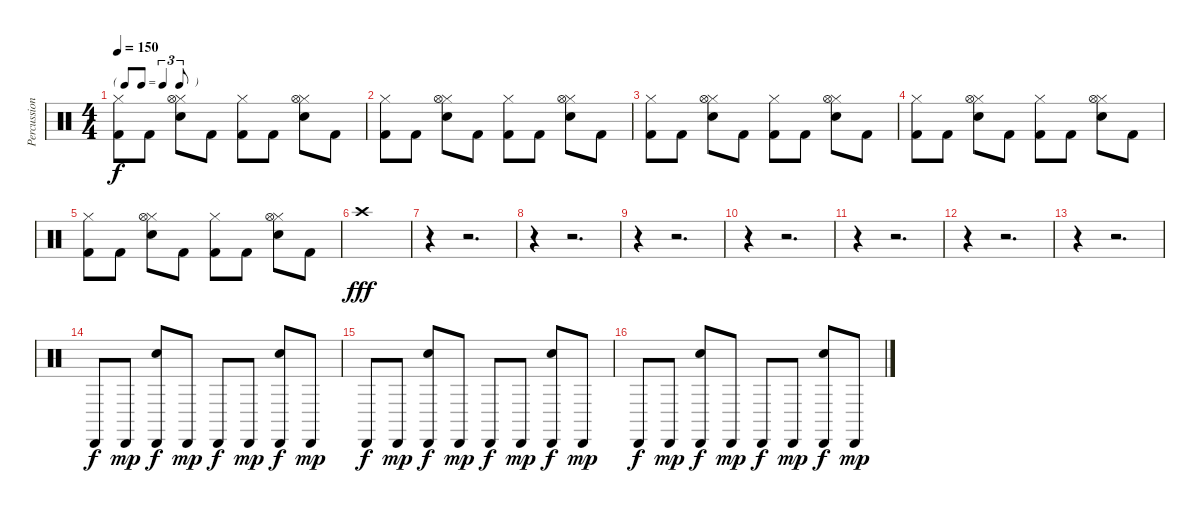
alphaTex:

\track ("Percussion" "Percussion") {instrument percussion}
\staff {score}
\articulation defaults
\ts (4 4)
\tf triplet8th
\tempo 150
\clef neutral
\ks c
("Hi-Hat (closed)" "Kick (hit) 2").8{dy f} "Kick (hit) 2".8 ("Hi-Hat (closed)" "Snare (hit) 2" "Hi-Hat (open)").8 "Kick (hit) 2".8 ("Hi-Hat (closed)" "Kick (hit) 2").8 "Kick (hit) 2".8 ("Hi-Hat (closed)" "Snare (hit) 2" "Hi-Hat (open)").8 "Kick (hit) 2".8 |
("Hi-Hat (closed)" "Kick (hit) 2").8 "Kick (hit) 2".8 ("Hi-Hat (closed)" "Snare (hit) 2" "Hi-Hat (open)").8 "Kick (hit) 2".8 ("Hi-Hat (closed)" "Kick (hit) 2").8 "Kick (hit) 2".8 ("Hi-Hat (closed)" "Snare (hit) 2" "Hi-Hat (open)").8 "Kick (hit) 2".8 |
("Hi-Hat (closed)" "Kick (hit) 2").8 "Kick (hit) 2".8 ("Hi-Hat (closed)" "Snare (hit) 2" "Hi-Hat (open)").8 "Kick (hit) 2".8 ("Hi-Hat (closed)" "Kick (hit) 2").8 "Kick (hit) 2".8 ("Hi-Hat (closed)" "Snare (hit) 2" "Hi-Hat (open)").8 "Kick (hit) 2".8 |
("Hi-Hat (closed)" "Kick (hit) 2").8 "Kick (hit) 2".8 ("Hi-Hat (closed)" "Snare (hit) 2" "Hi-Hat (open)").8 "Kick (hit) 2".8 ("Hi-Hat (closed)" "Kick (hit) 2").8 "Kick (hit) 2".8 ("Hi-Hat (closed)" "Snare (hit) 2" "Hi-Hat (open)").8 "Kick (hit) 2".8 |
("Hi-Hat (closed)" "Kick (hit) 2").8 "Kick (hit) 2".8 ("Hi-Hat (closed)" "Snare (hit) 2" "Hi-Hat (open)").8 "Kick (hit) 2".8 ("Hi-Hat (closed)" "Kick (hit) 2").8 "Kick (hit) 2".8 ("Hi-Hat (closed)" "Snare (hit) 2" "Hi-Hat (open)").8 "Kick (hit) 2".8 |
"Crash high (hit)".1{dy fff} |
r.4 r.2{d} |
r.4 r.2{d} |
r.4 r.2{d} |
r.4 r.2{d} |
r.4 r.2{d} |
r.4 r.2{d} |
r.4 r.2{d} |
"Cabasa (hit)".8{dy f} "Cabasa (hit)".8{dy mp} ("Cabasa (hit)" "Hand Clap (hit)").8{dy f} "Cabasa (hit)".8{dy mp} "Cabasa (hit)".8{dy f} "Cabasa (hit)".8{dy mp} ("Cabasa (hit)" "Hand Clap (hit)").8{dy f} "Cabasa (hit)".8{dy mp} |
"Cabasa (hit)".8{dy f} "Cabasa (hit)".8{dy mp} ("Cabasa (hit)" "Hand Clap (hit)").8{dy f} "Cabasa (hit)".8{dy mp} "Cabasa (hit)".8{dy f} "Cabasa (hit)".8{dy mp} ("Cabasa (hit)" "Hand Clap (hit)").8{dy f} "Cabasa (hit)".8{dy mp} |
"Cabasa (hit)".8{dy f} "Cabasa (hit)".8{dy mp} ("Cabasa (hit)" "Hand Clap (hit)").8{dy f} "Cabasa (hit)".8{dy mp} "Cabasa (hit)".8{dy f} "Cabasa (hit)".8{dy mp} ("Cabasa (hit)" "Hand Clap (hit)").8{dy f} "Cabasa (hit)".8{dy mp}
